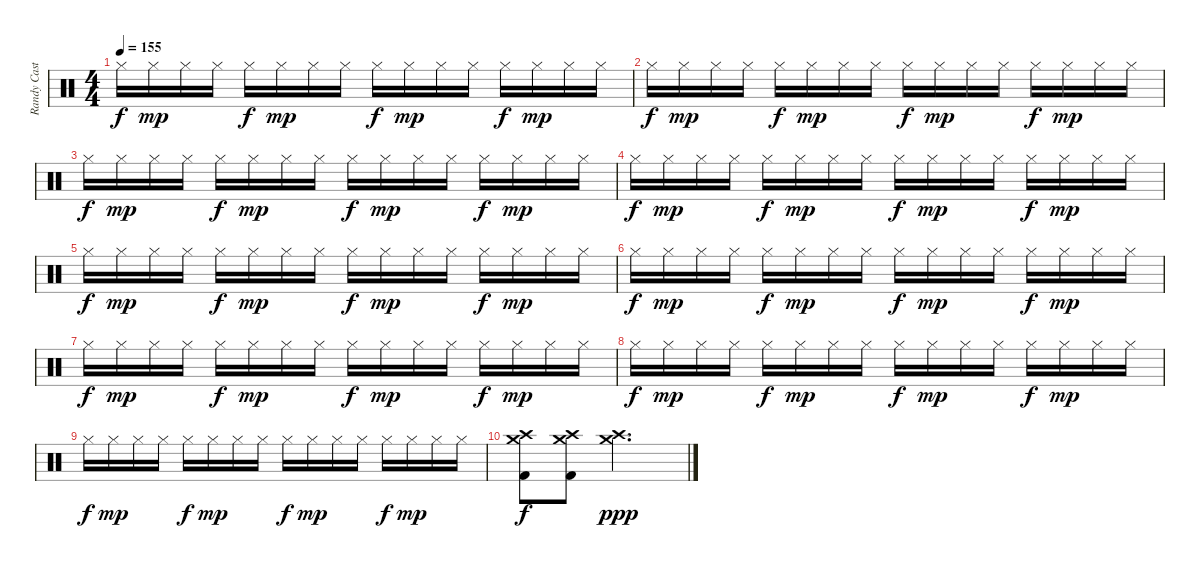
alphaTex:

\track ("Randy Castillo - Drums" "Randy Cast") {instrument percussion}
\staff {score}
\articulation defaults
\ts (4 4)
\tempo 155
\clef neutral
\ks c "Hi-Hat (closed)".16{dy f} "Hi-Hat (closed)".16{dy mp} "Hi-Hat (closed)".16 "Hi-Hat (closed)".16 "Hi-Hat (closed)".16{dy f} "Hi-Hat (closed)".16{dy mp} "Hi-Hat (closed)".16 "Hi-Hat (closed)".16 "Hi-Hat (closed)".16{dy f} "Hi-Hat (closed)".16{dy mp} "Hi-Hat (closed)".16 "Hi-Hat (closed)".16 "Hi-Hat (closed)".16{dy f} "Hi-Hat (closed)".16{dy mp} "Hi-Hat (closed)".16 "Hi-Hat (closed)".16
|
"Hi-Hat (closed)".16{dy f} "Hi-Hat (closed)".16{dy mp} "Hi-Hat (closed)".16 "Hi-Hat (closed)".16 "Hi-Hat (closed)".16{dy f} "Hi-Hat (closed)".16{dy mp} "Hi-Hat (closed)".16 "Hi-Hat (closed)".16 "Hi-Hat (closed)".16{dy f} "Hi-Hat (closed)".16{dy mp} "Hi-Hat (closed)".16 "Hi-Hat (closed)".16 "Hi-Hat (closed)".16{dy f} "Hi-Hat (closed)".16{dy mp} "Hi-Hat (closed)".16 "Hi-Hat (closed)".16 |
"Hi-Hat (closed)".16{dy f} "Hi-Hat (closed)".16{dy mp} "Hi-Hat (closed)".16 "Hi-Hat (closed)".16 "Hi-Hat (closed)".16{dy f} "Hi-Hat (closed)".16{dy mp} "Hi-Hat (closed)".16 "Hi-Hat (closed)".16 "Hi-Hat (closed)".16{dy f} "Hi-Hat (closed)".16{dy mp} "Hi-Hat (closed)".16 "Hi-Hat (closed)".16 "Hi-Hat (closed)".16{dy f} "Hi-Hat (closed)".16{dy mp} "Hi-Hat (closed)".16 "Hi-Hat (closed)".16 |
"Hi-Hat (closed)".16{dy f} "Hi-Hat (closed)".16{dy mp} "Hi-Hat (closed)".16 "Hi-Hat (closed)".16 "Hi-Hat (closed)".16{dy f} "Hi-Hat (closed)".16{dy mp} "Hi-Hat (closed)".16 "Hi-Hat (closed)".16 "Hi-Hat (closed)".16{dy f} "Hi-Hat (closed)".16{dy mp} "Hi-Hat (closed)".16 "Hi-Hat (closed)".16 "Hi-Hat (closed)".16{dy f} "Hi-Hat (closed)".16{dy mp} "Hi-Hat (closed)".16 "Hi-Hat (closed)".16 |
"Hi-Hat (closed)".16{dy f} "Hi-Hat (closed)".16{dy mp} "Hi-Hat (closed)".16 "Hi-Hat (closed)".16 "Hi-Hat (closed)".16{dy f} "Hi-Hat (closed)".16{dy mp} "Hi-Hat (closed)".16 "Hi-Hat (closed)".16 "Hi-Hat (closed)".16{dy f} "Hi-Hat (closed)".16{dy mp} "Hi-Hat (closed)".16 "Hi-Hat (closed)".16 "Hi-Hat (closed)".16{dy f} "Hi-Hat (closed)".16{dy mp} "Hi-Hat (closed)".16 "Hi-Hat (closed)".16 |
"Hi-Hat (closed)".16{dy f} "Hi-Hat (closed)".16{dy mp} "Hi-Hat (closed)".16 "Hi-Hat (closed)".16 "Hi-Hat (closed)".16{dy f} "Hi-Hat (closed)".16{dy mp} "Hi-Hat (closed)".16 "Hi-Hat (closed)".16 "Hi-Hat (closed)".16{dy f} "Hi-Hat (closed)".16{dy mp} "Hi-Hat (closed)".16 "Hi-Hat (closed)".16 "Hi-Hat (closed)".16{dy f} "Hi-Hat (closed)".16{dy mp} "Hi-Hat (closed)".16 "Hi-Hat (closed)".16 |
"Hi-Hat (closed)".16{dy f} "Hi-Hat (closed)".16{dy mp} "Hi-Hat (closed)".16 "Hi-Hat (closed)".16 "Hi-Hat (closed)".16{dy f} "Hi-Hat (closed)".16{dy mp} "Hi-Hat (closed)".16 "Hi-Hat (closed)".16 "Hi-Hat (closed)".16{dy f} "Hi-Hat (closed)".16{dy mp} "Hi-Hat (closed)".16 "Hi-Hat (closed)".16 "Hi-Hat (closed)".16{dy f} "Hi-Hat (closed)".16{dy mp} "Hi-Hat (closed)".16 "Hi-Hat (closed)".16 |
"Hi-Hat (closed)".16{dy f} "Hi-Hat (closed)".16{dy mp} "Hi-Hat (closed)".16 "Hi-Hat (closed)".16 "Hi-Hat (closed)".16{dy f} "Hi-Hat (closed)".16{dy mp} "Hi-Hat (closed)".16 "Hi-Hat (closed)".16 "Hi-Hat (closed)".16{dy f} "Hi-Hat (closed)".16{dy mp} "Hi-Hat (closed)".16 "Hi-Hat (closed)".16 "Hi-Hat (closed)".16{dy f} "Hi-Hat (closed)".16{dy mp} "Hi-Hat (closed)".16 "Hi-Hat (closed)".16 |
"Hi-Hat (closed)".16{dy f} "Hi-Hat (closed)".16{dy mp} "Hi-Hat (closed)".16 "Hi-Hat (closed)".16 "Hi-Hat (closed)".16{dy f} "Hi-Hat (closed)".16{dy mp} "Hi-Hat (closed)".16 "Hi-Hat (closed)".16 "Hi-Hat (closed)".16{dy f} "Hi-Hat (closed)".16{dy mp} "Hi-Hat (closed)".16 "Hi-Hat (closed)".16 "Hi-Hat (closed)".16{dy f} "Hi-Hat (closed)".16{dy mp} "Hi-Hat (closed)".16 "Hi-Hat (closed)".16 |
("Crash medium (hit)" "Crash high (hit)" "Kick (hit) 2").8{dy f} ("Crash high (hit)" "Crash medium (hit)" "Kick (hit) 2").8 ("Crash medium (hit)" "Crash high (hit)").2{d dy ppp}
